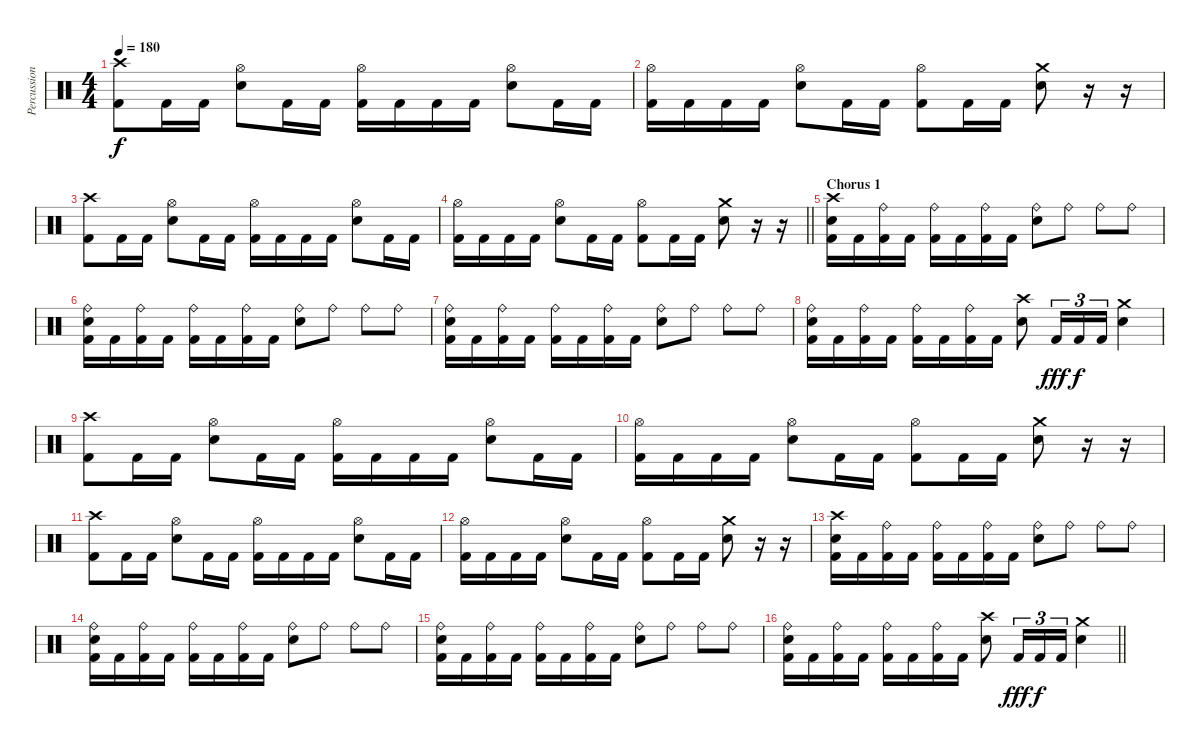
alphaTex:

\track ("Percussion" "Percussion") {instrument percussion}
\staff {score}
\articulation defaults
\ts (4 4)
\tempo 180
\clef neutral
\ks c
("Crash high (hit)" "Kick (hit) 2").8{dy f} "Kick (hit) 2".16 "Kick (hit) 2".16 ("Hi-Hat (open)" "Electric Snare (hit)").8 "Kick (hit) 2".16 "Kick (hit) 2".16 ("Hi-Hat (open)" "Kick (hit) 2").16 "Kick (hit) 2".16 "Kick (hit) 2".16 "Kick (hit) 2".16 ("Hi-Hat (open)" "Electric Snare (hit)").8 "Kick (hit) 2".16 "Kick (hit) 2".16 |
("Hi-Hat (open)" "Kick (hit) 2").16 "Kick (hit) 2".16 "Kick (hit) 2".16 "Kick (hit) 2".16 ("Hi-Hat (open)" "Electric Snare (hit)").8 "Kick (hit) 2".16 "Kick (hit) 2".16 ("Hi-Hat (open)" "Kick (hit) 2").8 "Kick (hit) 2".16 "Kick (hit) 2".16 ("Crash medium (hit)" "Electric Snare (hit)").8 r.16 r.16 |
("Crash high (hit)" "Kick (hit) 2").8 "Kick (hit) 2".16 "Kick (hit) 2".16 ("Hi-Hat (open)" "Electric Snare (hit)").8 "Kick (hit) 2".16 "Kick (hit) 2".16 ("Hi-Hat (open)" "Kick (hit) 2").16 "Kick (hit) 2".16 "Kick (hit) 2".16 "Kick (hit) 2".16 ("Hi-Hat (open)" "Electric Snare (hit)").8 "Kick (hit) 2".16 "Kick (hit) 2".16 |
\barLineRight lightlight
("Hi-Hat (open)" "Kick (hit) 2").16 "Kick (hit) 2".16 "Kick (hit) 2".16 "Kick (hit) 2".16 ("Hi-Hat (open)" "Electric Snare (hit)").8 "Kick (hit) 2".16 "Kick (hit) 2".16 ("Hi-Hat (open)" "Kick (hit) 2").8 "Kick (hit) 2".16 "Kick (hit) 2".16 ("Crash medium (hit)" "Electric Snare (hit)").8 r.16 r.16 |
\section ("" "Chorus 1")
("Crash high (hit)" "Electric Snare (hit)" "Kick (hit) 2").16 "Kick (hit) 2".16 ("Ride (bell)" "Kick (hit) 2").16 "Kick (hit) 2".16 ("Ride (bell)" "Kick (hit) 2").16 "Kick (hit) 2".16 ("Ride (bell)" "Kick (hit) 2").16 "Kick (hit) 2".16 ("Ride (bell)" "Electric Snare (hit)").8 "Ride (bell)".8 "Ride (bell)".8 "Ride (bell)".8 |
("Ride (bell)" "Electric Snare (hit)" "Kick (hit) 2").16 "Kick (hit) 2".16 ("Ride (bell)" "Kick (hit) 2").16 "Kick (hit) 2".16 ("Ride (bell)" "Kick (hit) 2").16 "Kick (hit) 2".16 ("Ride (bell)" "Kick (hit) 2").16 "Kick (hit) 2".16 ("Ride (bell)" "Electric Snare (hit)").8 "Ride (bell)".8 "Ride (bell)".8 "Ride (bell)".8 |
("Ride (bell)" "Electric Snare (hit)" "Kick (hit) 2").16 "Kick (hit) 2".16 ("Ride (bell)" "Kick (hit) 2").16 "Kick (hit) 2".16 ("Ride (bell)" "Kick (hit) 2").16 "Kick (hit) 2".16 ("Ride (bell)" "Kick (hit) 2").16 "Kick (hit) 2".16 ("Ride (bell)" "Electric Snare (hit)").8 "Ride (bell)".8 "Ride (bell)".8 "Ride (bell)".8 |
("Ride (bell)" "Electric Snare (hit)" "Kick (hit) 2").16 "Kick (hit) 2".16 ("Ride (bell)" "Kick (hit) 2").16 "Kick (hit) 2".16 ("Ride (bell)" "Kick (hit) 2").16 "Kick (hit) 2".16 ("Ride (bell)" "Kick (hit) 2").16 "Kick (hit) 2".16 ("Crash high (hit)" "Electric Snare (hit)").8 "Kick (hit) 2".16{tu (3 2) dy fff} "Kick (hit) 2".16{tu (3 2) dy f} "Kick (hit) 2".16{tu (3 2)} ("Crash medium (hit)" "Electric Snare (hit)").4 |
("Crash high (hit)" "Kick (hit) 2").8 "Kick (hit) 2".16 "Kick (hit) 2".16 ("Hi-Hat (open)" "Electric Snare (hit)").8 "Kick (hit) 2".16 "Kick (hit) 2".16 ("Hi-Hat (open)" "Kick (hit) 2").16 "Kick (hit) 2".16 "Kick (hit) 2".16 "Kick (hit) 2".16 ("Hi-Hat (open)" "Electric Snare (hit)").8 "Kick (hit) 2".16 "Kick (hit) 2".16 |
("Hi-Hat (open)" "Kick (hit) 2").16 "Kick (hit) 2".16 "Kick (hit) 2".16 "Kick (hit) 2".16 ("Hi-Hat (open)" "Electric Snare (hit)").8 "Kick (hit) 2".16 "Kick (hit) 2".16 ("Hi-Hat (open)" "Kick (hit) 2").8 "Kick (hit) 2".16 "Kick (hit) 2".16 ("Crash medium (hit)" "Electric Snare (hit)").8 r.16 r.16 |
("Crash high (hit)" "Kick (hit) 2").8 "Kick (hit) 2".16 "Kick (hit) 2".16 ("Hi-Hat (open)" "Electric Snare (hit)").8 "Kick (hit) 2".16 "Kick (hit) 2".16 ("Hi-Hat (open)" "Kick (hit) 2").16 "Kick (hit) 2".16 "Kick (hit) 2".16 "Kick (hit) 2".16 ("Hi-Hat (open)" "Electric Snare (hit)").8 "Kick (hit) 2".16 "Kick (hit) 2".16 |
("Hi-Hat (open)" "Kick (hit) 2").16 "Kick (hit) 2".16 "Kick (hit) 2".16 "Kick (hit) 2".16 ("Hi-Hat (open)" "Electric Snare (hit)").8 "Kick (hit) 2".16 "Kick (hit) 2".16 ("Hi-Hat (open)" "Kick (hit) 2").8 "Kick (hit) 2".16 "Kick (hit) 2".16 ("Crash medium (hit)" "Electric Snare (hit)").8 r.16 r.16 |
("Crash high (hit)" "Electric Snare (hit)" "Kick (hit) 2").16 "Kick (hit) 2".16 ("Ride (bell)" "Kick (hit) 2").16 "Kick (hit) 2".16 ("Ride (bell)" "Kick (hit) 2").16 "Kick (hit) 2".16 ("Ride (bell)" "Kick (hit) 2").16 "Kick (hit) 2".16 ("Ride (bell)" "Electric Snare (hit)").8 "Ride (bell)".8 "Ride (bell)".8 "Ride (bell)".8 |
("Ride (bell)" "Electric Snare (hit)" "Kick (hit) 2").16 "Kick (hit) 2".16 ("Ride (bell)" "Kick (hit) 2").16 "Kick (hit) 2".16 ("Ride (bell)" "Kick (hit) 2").16 "Kick (hit) 2".16 ("Ride (bell)" "Kick (hit) 2").16 "Kick (hit) 2".16 ("Ride (bell)" "Electric Snare (hit)").8 "Ride (bell)".8 "Ride (bell)".8 "Ride (bell)".8 |
("Ride (bell)" "Electric Snare (hit)" "Kick (hit) 2").16 "Kick (hit) 2".16 ("Ride (bell)" "Kick (hit) 2").16 "Kick (hit) 2".16 ("Ride (bell)" "Kick (hit) 2").16 "Kick (hit) 2".16 ("Ride (bell)" "Kick (hit) 2").16 "Kick (hit) 2".16 ("Ride (bell)" "Electric Snare (hit)").8 "Ride (bell)".8 "Ride (bell)".8 "Ride (bell)".8 |
\barLineRight lightlight
("Ride (bell)" "Electric Snare (hit)" "Kick (hit) 2").16 "Kick (hit) 2".16 ("Ride (bell)" "Kick (hit) 2").16 "Kick (hit) 2".16 ("Ride (bell)" "Kick (hit) 2").16 "Kick (hit) 2".16 ("Ride (bell)" "Kick (hit) 2").16 "Kick (hit) 2".16 ("Crash high (hit)" "Electric Snare (hit)").8 "Kick (hit) 2".16{tu (3 2) dy fff} "Kick (hit) 2".16{tu (3 2) dy f} "Kick (hit) 2".16{tu (3 2)} ("Crash medium (hit)" "Electric Snare (hit)").4
